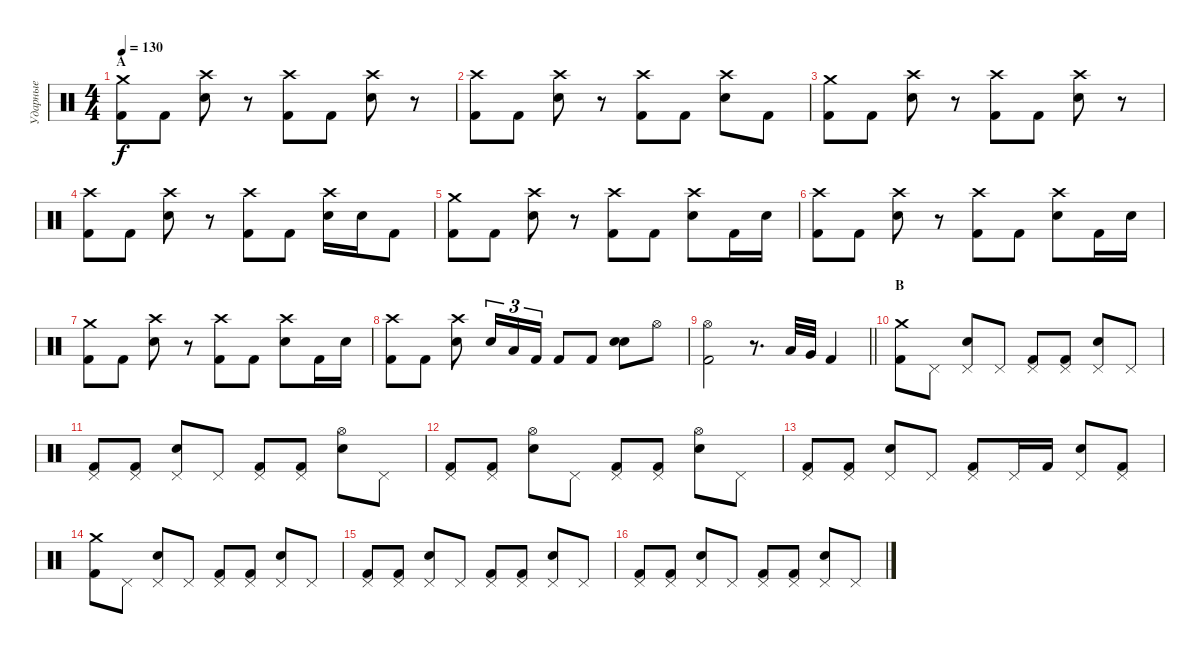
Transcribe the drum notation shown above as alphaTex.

\track ("Ударные" "Ударные") {instrument percussion}
\staff {score}
\articulation defaults
\ts (4 4)
\section ("" "A")
\tempo 130
\clef neutral
\ks c
("Crash medium (hit)" "Kick (hit) 2").8{dy f} "Kick (hit) 2".8 ("Crash high (hit)" "Electric Snare (hit)").8 r.8 ("Crash high (hit)" "Kick (hit) 2").8 "Kick (hit) 2".8 ("Crash high (hit)" "Electric Snare (hit)").8 r.8 |
("Crash high (hit)" "Kick (hit) 2").8 "Kick (hit) 2".8 ("Crash high (hit)" "Electric Snare (hit)").8 r.8 ("Crash high (hit)" "Kick (hit) 2").8 "Kick (hit) 2".8 ("Crash high (hit)" "Electric Snare (hit)").8 "Kick (hit) 2".8 |
("Crash medium (hit)" "Kick (hit) 2").8 "Kick (hit) 2".8 ("Crash high (hit)" "Electric Snare (hit)").8 r.8 ("Crash high (hit)" "Kick (hit) 2").8 "Kick (hit) 2".8 ("Crash high (hit)" "Electric Snare (hit)").8 r.8 |
("Crash high (hit)" "Kick (hit) 2").8 "Kick (hit) 2".8 ("Crash high (hit)" "Electric Snare (hit)").8 r.8 ("Crash high (hit)" "Kick (hit) 2").8 "Kick (hit) 2".8 ("Crash high (hit)" "Electric Snare (hit)").16 "Electric Snare (hit)".16 "Kick (hit) 2".8 |
("Crash medium (hit)" "Kick (hit) 2").8 "Kick (hit) 2".8 ("Crash high (hit)" "Electric Snare (hit)").8 r.8 ("Crash high (hit)" "Kick (hit) 2").8 "Kick (hit) 2".8 ("Crash high (hit)" "Electric Snare (hit)").8 "Kick (hit) 2".16 "Electric Snare (hit)".16 |
("Crash high (hit)" "Kick (hit) 2").8 "Kick (hit) 2".8 ("Crash high (hit)" "Electric Snare (hit)").8 r.8 ("Crash high (hit)" "Kick (hit) 2").8 "Kick (hit) 2".8 ("Crash high (hit)" "Electric Snare (hit)").8 "Kick (hit) 2".16 "Electric Snare (hit)".16 |
("Crash medium (hit)" "Kick (hit) 2").8 "Kick (hit) 2".8 ("Crash high (hit)" "Electric Snare (hit)").8 r.8 ("Crash high (hit)" "Kick (hit) 2").8 "Kick (hit) 2".8 ("Crash high (hit)" "Electric Snare (hit)").8 "Kick (hit) 2".16 "Electric Snare (hit)".16 |
("Crash high (hit)" "Kick (hit) 2").8 "Kick (hit) 2".8 ("Crash high (hit)" "Electric Snare (hit)").8 "Electric Snare (hit)".16{tu (3 2)} "Low Tom (hit)".16{tu (3 2)} "Kick (hit) 2".16{tu (3 2)} "Kick (hit) 2".8 "Kick (hit) 2".8 ("Electric Snare (hit)" "Electric Snare (hit)").8{bd 60} "Hi-Hat (open)".8 |
\barLineRight lightlight
("Hi-Hat (open)" "Kick (hit) 2").2 r.8{d} "Low Tom (hit)".32 "Very Low Tom (hit)".32 "Kick (hit) 2".4 |
\section ("" "B")
("Crash medium (hit)" "Kick (hit) 2").8 "Pedal Hi-Hat (hit)".8 ("Pedal Hi-Hat (hit)" "Electric Snare (hit)").8 "Pedal Hi-Hat (hit)".8 ("Pedal Hi-Hat (hit)" "Kick (hit) 2").8 ("Pedal Hi-Hat (hit)" "Kick (hit) 2").8 ("Pedal Hi-Hat (hit)" "Electric Snare (hit)").8 "Pedal Hi-Hat (hit)".8 |
("Pedal Hi-Hat (hit)" "Kick (hit) 2").8 ("Pedal Hi-Hat (hit)" "Kick (hit) 2").8 ("Pedal Hi-Hat (hit)" "Electric Snare (hit)").8 "Pedal Hi-Hat (hit)".8 ("Pedal Hi-Hat (hit)" "Kick (hit) 2").8 ("Pedal Hi-Hat (hit)" "Kick (hit) 2").8 ("Hi-Hat (open)" "Electric Snare (hit)").8 "Pedal Hi-Hat (hit)".8 |
("Pedal Hi-Hat (hit)" "Kick (hit) 2").8 ("Pedal Hi-Hat (hit)" "Kick (hit) 2").8 ("Hi-Hat (open)" "Electric Snare (hit)").8 "Pedal Hi-Hat (hit)".8 ("Pedal Hi-Hat (hit)" "Kick (hit) 2").8 ("Pedal Hi-Hat (hit)" "Kick (hit) 2").8 ("Hi-Hat (open)" "Electric Snare (hit)").8 "Pedal Hi-Hat (hit)".8 |
("Pedal Hi-Hat (hit)" "Kick (hit) 2").8 ("Pedal Hi-Hat (hit)" "Kick (hit) 2").8 ("Pedal Hi-Hat (hit)" "Electric Snare (hit)").8 "Pedal Hi-Hat (hit)".8 ("Pedal Hi-Hat (hit)" "Kick (hit) 2").8 "Pedal Hi-Hat (hit)".16 "Kick (hit) 2".16 ("Pedal Hi-Hat (hit)" "Electric Snare (hit)").8 ("Pedal Hi-Hat (hit)" "Kick (hit) 2").8 |
("Crash medium (hit)" "Kick (hit) 2").8 "Pedal Hi-Hat (hit)".8 ("Pedal Hi-Hat (hit)" "Electric Snare (hit)").8 "Pedal Hi-Hat (hit)".8 ("Pedal Hi-Hat (hit)" "Kick (hit) 2").8 ("Pedal Hi-Hat (hit)" "Kick (hit) 2").8 ("Pedal Hi-Hat (hit)" "Electric Snare (hit)").8 "Pedal Hi-Hat (hit)".8 |
("Pedal Hi-Hat (hit)" "Kick (hit) 2").8 ("Pedal Hi-Hat (hit)" "Kick (hit) 2").8 ("Pedal Hi-Hat (hit)" "Electric Snare (hit)").8 "Pedal Hi-Hat (hit)".8 ("Pedal Hi-Hat (hit)" "Kick (hit) 2").8 ("Pedal Hi-Hat (hit)" "Kick (hit) 2").8 ("Pedal Hi-Hat (hit)" "Electric Snare (hit)").8 "Pedal Hi-Hat (hit)".8 |
("Pedal Hi-Hat (hit)" "Kick (hit) 2").8 ("Pedal Hi-Hat (hit)" "Kick (hit) 2").8 ("Pedal Hi-Hat (hit)" "Electric Snare (hit)").8 "Pedal Hi-Hat (hit)".8 ("Pedal Hi-Hat (hit)" "Kick (hit) 2").8 ("Pedal Hi-Hat (hit)" "Kick (hit) 2").8 ("Pedal Hi-Hat (hit)" "Electric Snare (hit)").8 "Pedal Hi-Hat (hit)".8
